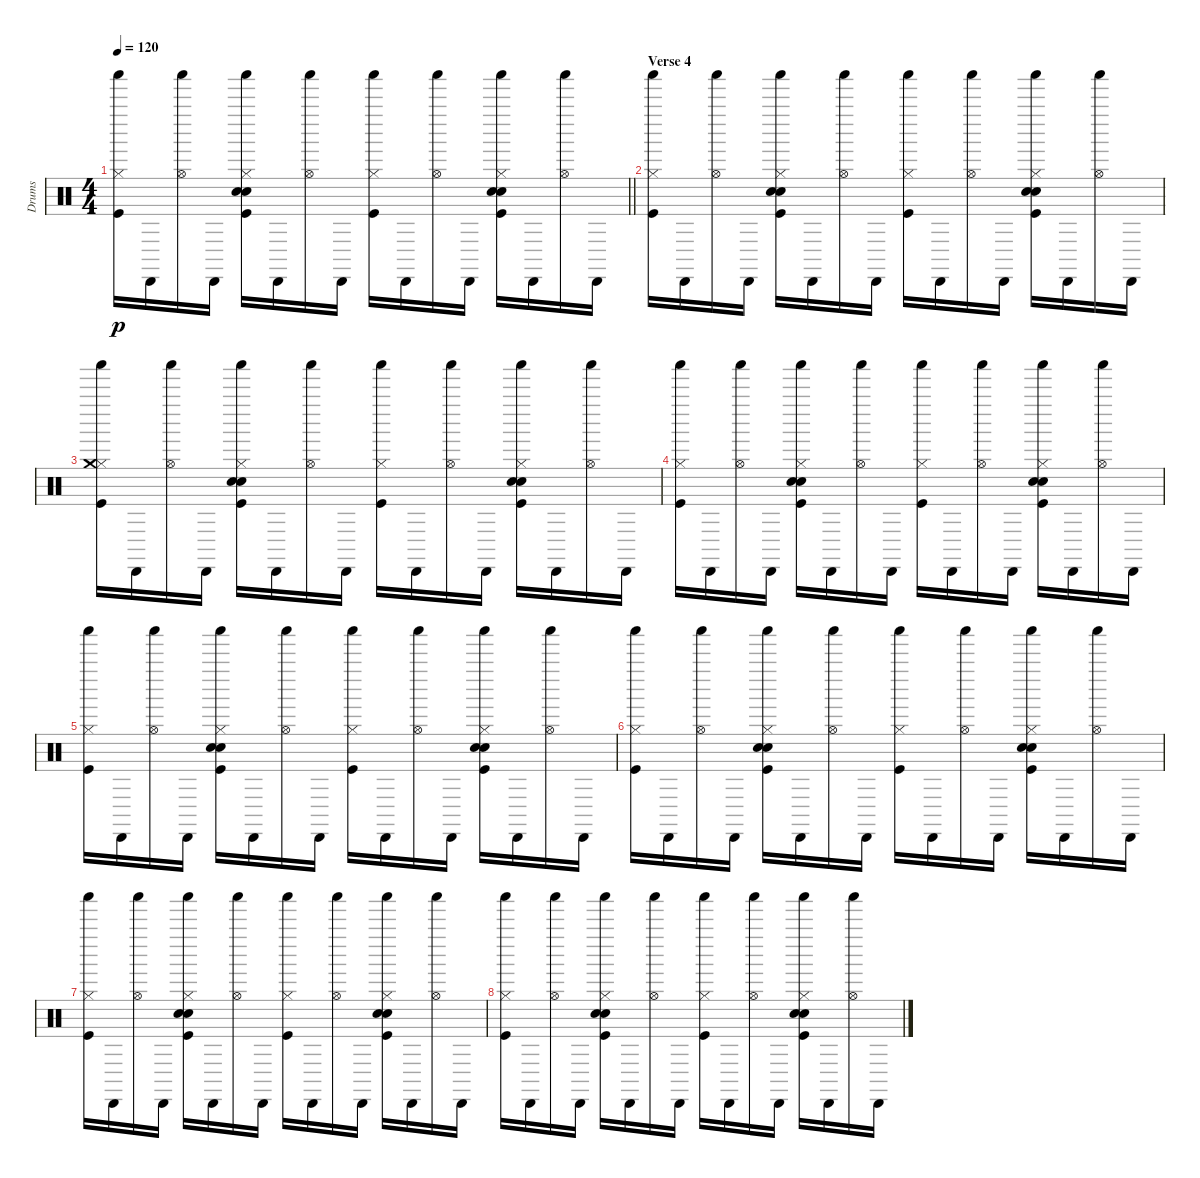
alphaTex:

\track ("Drums" "Drums") {instrument percussion}
\staff {score}
\articulation defaults
\ts (4 4)
\tempo 120
\clef neutral
\barLineRight lightlight
\ks c
("Kick (hit)" "Hi-Hat (closed)" "Shaker (hit)").16{dy p} "Cabasa (hit)".16 ("Hi-Hat (open)" "Shaker (hit)").16 "Cabasa (hit)".16 ("Kick (hit)" "Snare (hit) 2" "Electric Snare (hit)" "Hi-Hat (closed)" "Shaker (hit)").16 "Cabasa (hit)".16 ("Hi-Hat (open)" "Shaker (hit)").16 "Cabasa (hit)".16 ("Kick (hit)" "Hi-Hat (closed)" "Shaker (hit)").16 "Cabasa (hit)".16 ("Hi-Hat (open)" "Shaker (hit)").16 "Cabasa (hit)".16 ("Kick (hit)" "Snare (hit) 2" "Electric Snare (hit)" "Hi-Hat (closed)" "Shaker (hit)").16 "Cabasa (hit)".16 ("Hi-Hat (open)" "Shaker (hit)").16 "Cabasa (hit)".16 |
\section ("" "Verse 4")
("Kick (hit)" "Hi-Hat (closed)" "Shaker (hit)").16 "Cabasa (hit)".16 ("Hi-Hat (open)" "Shaker (hit)").16 "Cabasa (hit)".16 ("Kick (hit)" "Snare (hit) 2" "Electric Snare (hit)" "Hi-Hat (closed)" "Shaker (hit)").16 "Cabasa (hit)".16 ("Hi-Hat (open)" "Shaker (hit)").16 "Cabasa (hit)".16 ("Kick (hit)" "Hi-Hat (closed)" "Shaker (hit)").16 "Cabasa (hit)".16 ("Hi-Hat (open)" "Shaker (hit)").16 "Cabasa (hit)".16 ("Kick (hit)" "Snare (hit) 2" "Electric Snare (hit)" "Hi-Hat (closed)" "Shaker (hit)").16 "Cabasa (hit)".16 ("Hi-Hat (open)" "Shaker (hit)").16 "Cabasa (hit)".16 |
("Kick (hit)" "Hi-Hat (closed)" "Crash medium (hit)" "Shaker (hit)").16 "Cabasa (hit)".16 ("Hi-Hat (open)" "Shaker (hit)").16 "Cabasa (hit)".16 ("Kick (hit)" "Snare (hit) 2" "Electric Snare (hit)" "Hi-Hat (closed)" "Shaker (hit)").16 "Cabasa (hit)".16 ("Hi-Hat (open)" "Shaker (hit)").16 "Cabasa (hit)".16 ("Kick (hit)" "Hi-Hat (closed)" "Shaker (hit)").16 "Cabasa (hit)".16 ("Hi-Hat (open)" "Shaker (hit)").16 "Cabasa (hit)".16 ("Kick (hit)" "Snare (hit) 2" "Electric Snare (hit)" "Hi-Hat (closed)" "Shaker (hit)").16 "Cabasa (hit)".16 ("Hi-Hat (open)" "Shaker (hit)").16 "Cabasa (hit)".16 |
("Kick (hit)" "Hi-Hat (closed)" "Shaker (hit)").16 "Cabasa (hit)".16 ("Hi-Hat (open)" "Shaker (hit)").16 "Cabasa (hit)".16 ("Kick (hit)" "Snare (hit) 2" "Electric Snare (hit)" "Hi-Hat (closed)" "Shaker (hit)").16 "Cabasa (hit)".16 ("Hi-Hat (open)" "Shaker (hit)").16 "Cabasa (hit)".16 ("Kick (hit)" "Hi-Hat (closed)" "Shaker (hit)").16 "Cabasa (hit)".16 ("Hi-Hat (open)" "Shaker (hit)").16 "Cabasa (hit)".16 ("Kick (hit)" "Snare (hit) 2" "Electric Snare (hit)" "Hi-Hat (closed)" "Shaker (hit)").16 "Cabasa (hit)".16 ("Hi-Hat (open)" "Shaker (hit)").16 "Cabasa (hit)".16 |
("Kick (hit)" "Hi-Hat (closed)" "Shaker (hit)").16 "Cabasa (hit)".16 ("Hi-Hat (open)" "Shaker (hit)").16 "Cabasa (hit)".16 ("Kick (hit)" "Snare (hit) 2" "Electric Snare (hit)" "Hi-Hat (closed)" "Shaker (hit)").16 "Cabasa (hit)".16 ("Hi-Hat (open)" "Shaker (hit)").16 "Cabasa (hit)".16 ("Kick (hit)" "Hi-Hat (closed)" "Shaker (hit)").16 "Cabasa (hit)".16 ("Hi-Hat (open)" "Shaker (hit)").16 "Cabasa (hit)".16 ("Kick (hit)" "Snare (hit) 2" "Electric Snare (hit)" "Hi-Hat (closed)" "Shaker (hit)").16 "Cabasa (hit)".16 ("Hi-Hat (open)" "Shaker (hit)").16 "Cabasa (hit)".16 |
("Kick (hit)" "Hi-Hat (closed)" "Shaker (hit)").16 "Cabasa (hit)".16 ("Hi-Hat (open)" "Shaker (hit)").16 "Cabasa (hit)".16 ("Kick (hit)" "Snare (hit) 2" "Electric Snare (hit)" "Hi-Hat (closed)" "Shaker (hit)").16 "Cabasa (hit)".16 ("Hi-Hat (open)" "Shaker (hit)").16 "Cabasa (hit)".16 ("Kick (hit)" "Hi-Hat (closed)" "Shaker (hit)").16 "Cabasa (hit)".16 ("Hi-Hat (open)" "Shaker (hit)").16 "Cabasa (hit)".16 ("Kick (hit)" "Snare (hit) 2" "Electric Snare (hit)" "Hi-Hat (closed)" "Shaker (hit)").16 "Cabasa (hit)".16 ("Hi-Hat (open)" "Shaker (hit)").16 "Cabasa (hit)".16 |
("Kick (hit)" "Hi-Hat (closed)" "Shaker (hit)").16 "Cabasa (hit)".16 ("Hi-Hat (open)" "Shaker (hit)").16 "Cabasa (hit)".16 ("Kick (hit)" "Snare (hit) 2" "Electric Snare (hit)" "Hi-Hat (closed)" "Shaker (hit)").16 "Cabasa (hit)".16 ("Hi-Hat (open)" "Shaker (hit)").16 "Cabasa (hit)".16 ("Kick (hit)" "Hi-Hat (closed)" "Shaker (hit)").16 "Cabasa (hit)".16 ("Hi-Hat (open)" "Shaker (hit)").16 "Cabasa (hit)".16 ("Kick (hit)" "Snare (hit) 2" "Electric Snare (hit)" "Hi-Hat (closed)" "Shaker (hit)").16 "Cabasa (hit)".16 ("Hi-Hat (open)" "Shaker (hit)").16 "Cabasa (hit)".16 |
("Kick (hit)" "Hi-Hat (closed)" "Shaker (hit)").16 "Cabasa (hit)".16 ("Hi-Hat (open)" "Shaker (hit)").16 "Cabasa (hit)".16 ("Kick (hit)" "Snare (hit) 2" "Electric Snare (hit)" "Hi-Hat (closed)" "Shaker (hit)").16 "Cabasa (hit)".16 ("Hi-Hat (open)" "Shaker (hit)").16 "Cabasa (hit)".16 ("Kick (hit)" "Hi-Hat (closed)" "Shaker (hit)").16 "Cabasa (hit)".16 ("Hi-Hat (open)" "Shaker (hit)").16 "Cabasa (hit)".16 ("Kick (hit)" "Snare (hit) 2" "Electric Snare (hit)" "Hi-Hat (closed)" "Shaker (hit)").16 "Cabasa (hit)".16 ("Hi-Hat (open)" "Shaker (hit)").16 "Cabasa (hit)".16
